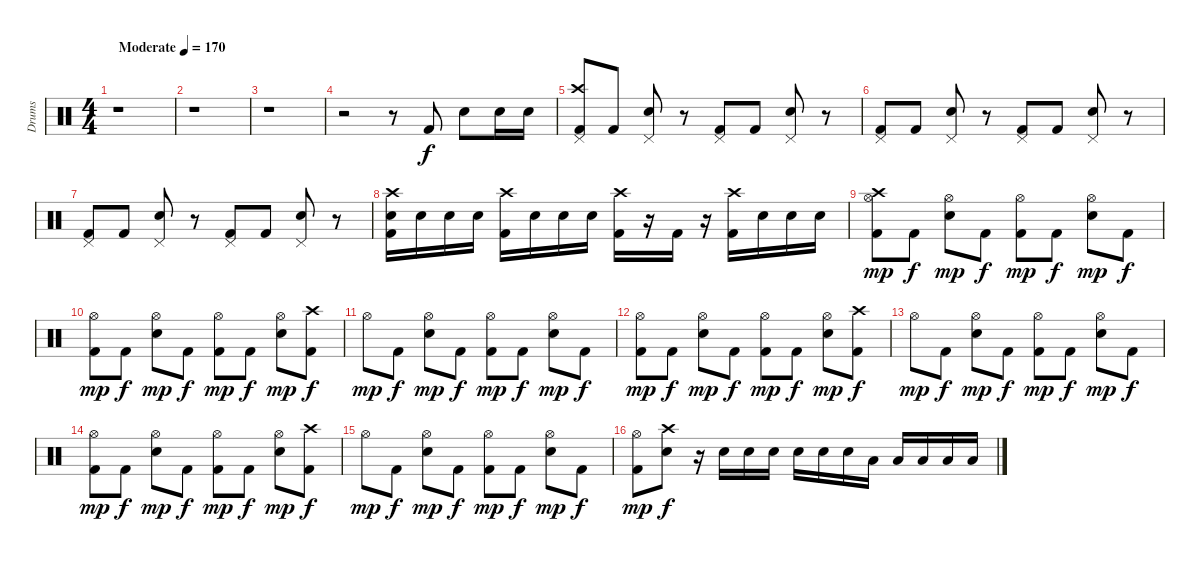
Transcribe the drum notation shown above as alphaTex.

\track ("Drums" "Drums") {instrument percussion}
\staff {score}
\articulation defaults
\ts (4 4)
\tempo (170 "Moderate")
\clef neutral
\ks c
r.1{dy f} |
r.1 |
r.1 |
r.2 r.8 "Kick (hit) 2".8 "Electric Snare (hit)".8 "Electric Snare (hit)".16 "Electric Snare (hit)".16 |
("Crash high (hit)" "Pedal Hi-Hat (hit)" "Kick (hit) 2").8 "Kick (hit) 2".8 ("Pedal Hi-Hat (hit)" "Electric Snare (hit)").8 r.8 ("Pedal Hi-Hat (hit)" "Kick (hit) 2").8 "Kick (hit) 2".8 ("Pedal Hi-Hat (hit)" "Electric Snare (hit)").8 r.8 |
("Pedal Hi-Hat (hit)" "Kick (hit) 2").8 "Kick (hit) 2".8 ("Pedal Hi-Hat (hit)" "Electric Snare (hit)").8 r.8 ("Pedal Hi-Hat (hit)" "Kick (hit) 2").8 "Kick (hit) 2".8 ("Pedal Hi-Hat (hit)" "Electric Snare (hit)").8 r.8 |
("Pedal Hi-Hat (hit)" "Kick (hit) 2").8 "Kick (hit) 2".8 ("Pedal Hi-Hat (hit)" "Electric Snare (hit)").8 r.8 ("Pedal Hi-Hat (hit)" "Kick (hit) 2").8 "Kick (hit) 2".8 ("Pedal Hi-Hat (hit)" "Electric Snare (hit)").8 r.8 |
("Crash high (hit)" "Electric Snare (hit)" "Kick (hit) 2").16 "Electric Snare (hit)".16 "Electric Snare (hit)".16 "Electric Snare (hit)".16 ("Crash high (hit)" "Kick (hit) 2").16 "Electric Snare (hit)".16 "Electric Snare (hit)".16 "Electric Snare (hit)".16 ("Crash high (hit)" "Kick (hit) 2").16 r.16 "Kick (hit) 2".16 r.16 ("Crash high (hit)" "Kick (hit) 2").16 "Electric Snare (hit)".16 "Electric Snare (hit)".16 "Electric Snare (hit)".16 |
("Hi-Hat (open)" "Crash high (hit)" "Kick (hit) 2").8{dy mp} "Kick (hit) 2".8{dy f} ("Hi-Hat (open)" "Electric Snare (hit)").8{dy mp} "Kick (hit) 2".8{dy f} ("Hi-Hat (open)" "Kick (hit) 2").8{dy mp} "Kick (hit) 2".8{dy f} ("Hi-Hat (open)" "Electric Snare (hit)").8{dy mp} "Kick (hit) 2".8{dy f} |
("Hi-Hat (open)" "Kick (hit) 2").8{dy mp} "Kick (hit) 2".8{dy f} ("Hi-Hat (open)" "Electric Snare (hit)").8{dy mp} "Kick (hit) 2".8{dy f} ("Hi-Hat (open)" "Kick (hit) 2").8{dy mp} "Kick (hit) 2".8{dy f} ("Hi-Hat (open)" "Electric Snare (hit)").8{dy mp} ("Crash high (hit)" "Kick (hit) 2").8{dy f} |
"Hi-Hat (open)".8{dy mp} "Kick (hit) 2".8{dy f} ("Hi-Hat (open)" "Electric Snare (hit)").8{dy mp} "Kick (hit) 2".8{dy f} ("Hi-Hat (open)" "Kick (hit) 2").8{dy mp} "Kick (hit) 2".8{dy f} ("Hi-Hat (open)" "Electric Snare (hit)").8{dy mp} "Kick (hit) 2".8{dy f} |
("Hi-Hat (open)" "Kick (hit) 2").8{dy mp} "Kick (hit) 2".8{dy f} ("Hi-Hat (open)" "Electric Snare (hit)").8{dy mp} "Kick (hit) 2".8{dy f} ("Hi-Hat (open)" "Kick (hit) 2").8{dy mp} "Kick (hit) 2".8{dy f} ("Hi-Hat (open)" "Electric Snare (hit)").8{dy mp} ("Crash high (hit)" "Kick (hit) 2").8{dy f} |
"Hi-Hat (open)".8{dy mp} "Kick (hit) 2".8{dy f} ("Hi-Hat (open)" "Electric Snare (hit)").8{dy mp} "Kick (hit) 2".8{dy f} ("Hi-Hat (open)" "Kick (hit) 2").8{dy mp} "Kick (hit) 2".8{dy f} ("Hi-Hat (open)" "Electric Snare (hit)").8{dy mp} "Kick (hit) 2".8{dy f} |
("Hi-Hat (open)" "Kick (hit) 2").8{dy mp} "Kick (hit) 2".8{dy f} ("Hi-Hat (open)" "Electric Snare (hit)").8{dy mp} "Kick (hit) 2".8{dy f} ("Hi-Hat (open)" "Kick (hit) 2").8{dy mp} "Kick (hit) 2".8{dy f} ("Hi-Hat (open)" "Electric Snare (hit)").8{dy mp} ("Crash high (hit)" "Kick (hit) 2").8{dy f} |
"Hi-Hat (open)".8{dy mp} "Kick (hit) 2".8{dy f} ("Hi-Hat (open)" "Electric Snare (hit)").8{dy mp} "Kick (hit) 2".8{dy f} ("Hi-Hat (open)" "Kick (hit) 2").8{dy mp} "Kick (hit) 2".8{dy f} ("Hi-Hat (open)" "Electric Snare (hit)").8{dy mp} "Kick (hit) 2".8{dy f} |
("Hi-Hat (open)" "Kick (hit) 2").8{dy mp} ("Crash high (hit)" "Snare (hit) 2").8{dy f} r.16 "Electric Snare (hit)".16 "Electric Snare (hit)".16 "Electric Snare (hit)".16 "Electric Snare (hit)".16 "Electric Snare (hit)".16 "Electric Snare (hit)".16 "Low Floor Tom (hit)".16 "Low Floor Tom (hit)".16 "Low Floor Tom (hit)".16 "Low Floor Tom (hit)".16 "Low Floor Tom (hit)".16
